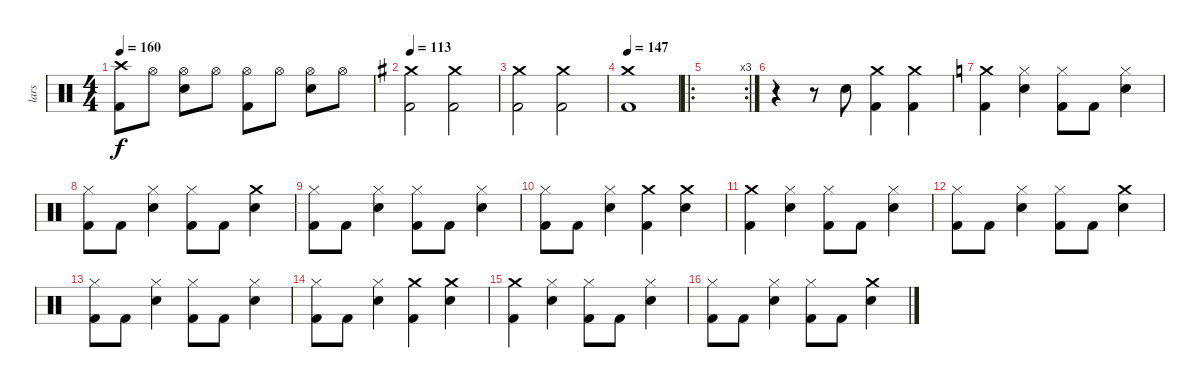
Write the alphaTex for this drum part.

\track ("lars" "lars") {instrument percussion}
\staff {score}
\articulation defaults
\ts (4 4)
\tempo 160
\clef neutral
\ks c
("Crash high (hit)" "Kick (hit) 2").8{dy f} "Hi-Hat (open)".8 ("Hi-Hat (open)" "Electric Snare (hit)").8 "Hi-Hat (open)".8 ("Hi-Hat (open)" "Kick (hit) 2").8 "Hi-Hat (open)".8 ("Hi-Hat (open)" "Electric Snare (hit)").8 "Hi-Hat (open)".8 |
\tempo 113
\ks g
("Kick (hit) 2" "Crash medium (hit)").2 ("Kick (hit) 2" "Crash medium (hit)").2 |
("Kick (hit) 2" "Crash medium (hit)").2 ("Kick (hit) 2" "Crash medium (hit)").2 |
\tempo 147
("Kick (hit) 2" "Crash medium (hit)").1 |
\ro
\rc 3
|
r.4 r.8 "Snare (hit) 2".8 ("Kick (hit) 2" "Crash medium (hit)").4 ("Kick (hit) 2" "Crash medium (hit)").4 |
\ks c
("Kick (hit) 2" "Crash medium (hit)").4 ("Hi-Hat (closed)" "Snare (hit) 2").4 ("Kick (hit) 2" "Hi-Hat (closed)").8 "Kick (hit) 2".8 ("Snare (hit) 2" "Hi-Hat (closed)").4 |
("Hi-Hat (closed)" "Kick (hit) 2").8 "Kick (hit) 2".8 ("Snare (hit) 2" "Hi-Hat (closed)").4 ("Hi-Hat (closed)" "Kick (hit) 2").8 "Kick (hit) 2".8 ("Crash medium (hit)" "Snare (hit) 2").4 |
("Hi-Hat (closed)" "Kick (hit) 2").8 "Kick (hit) 2".8 ("Snare (hit) 2" "Hi-Hat (closed)").4 ("Hi-Hat (closed)" "Kick (hit) 2").8 "Kick (hit) 2".8 ("Snare (hit) 2" "Hi-Hat (closed)").4 |
("Hi-Hat (closed)" "Kick (hit) 2").8 "Kick (hit) 2".8 ("Snare (hit) 2" "Hi-Hat (closed)").4 ("Crash medium (hit)" "Kick (hit) 2").4 ("Crash medium (hit)" "Snare (hit) 2").4 |
("Kick (hit) 2" "Crash medium (hit)").4 ("Hi-Hat (closed)" "Snare (hit) 2").4 ("Kick (hit) 2" "Hi-Hat (closed)").8 "Kick (hit) 2".8 ("Snare (hit) 2" "Hi-Hat (closed)").4 |
("Hi-Hat (closed)" "Kick (hit) 2").8 "Kick (hit) 2".8 ("Snare (hit) 2" "Hi-Hat (closed)").4 ("Hi-Hat (closed)" "Kick (hit) 2").8 "Kick (hit) 2".8 ("Crash medium (hit)" "Snare (hit) 2").4 |
("Hi-Hat (closed)" "Kick (hit) 2").8 "Kick (hit) 2".8 ("Snare (hit) 2" "Hi-Hat (closed)").4 ("Hi-Hat (closed)" "Kick (hit) 2").8 "Kick (hit) 2".8 ("Snare (hit) 2" "Hi-Hat (closed)").4 |
("Hi-Hat (closed)" "Kick (hit) 2").8 "Kick (hit) 2".8 ("Snare (hit) 2" "Hi-Hat (closed)").4 ("Crash medium (hit)" "Kick (hit) 2").4 ("Crash medium (hit)" "Snare (hit) 2").4 |
("Kick (hit) 2" "Crash medium (hit)").4 ("Hi-Hat (closed)" "Snare (hit) 2").4 ("Kick (hit) 2" "Hi-Hat (closed)").8 "Kick (hit) 2".8 ("Snare (hit) 2" "Hi-Hat (closed)").4 |
("Hi-Hat (closed)" "Kick (hit) 2").8 "Kick (hit) 2".8 ("Snare (hit) 2" "Hi-Hat (closed)").4 ("Hi-Hat (closed)" "Kick (hit) 2").8 "Kick (hit) 2".8 ("Crash medium (hit)" "Snare (hit) 2").4
